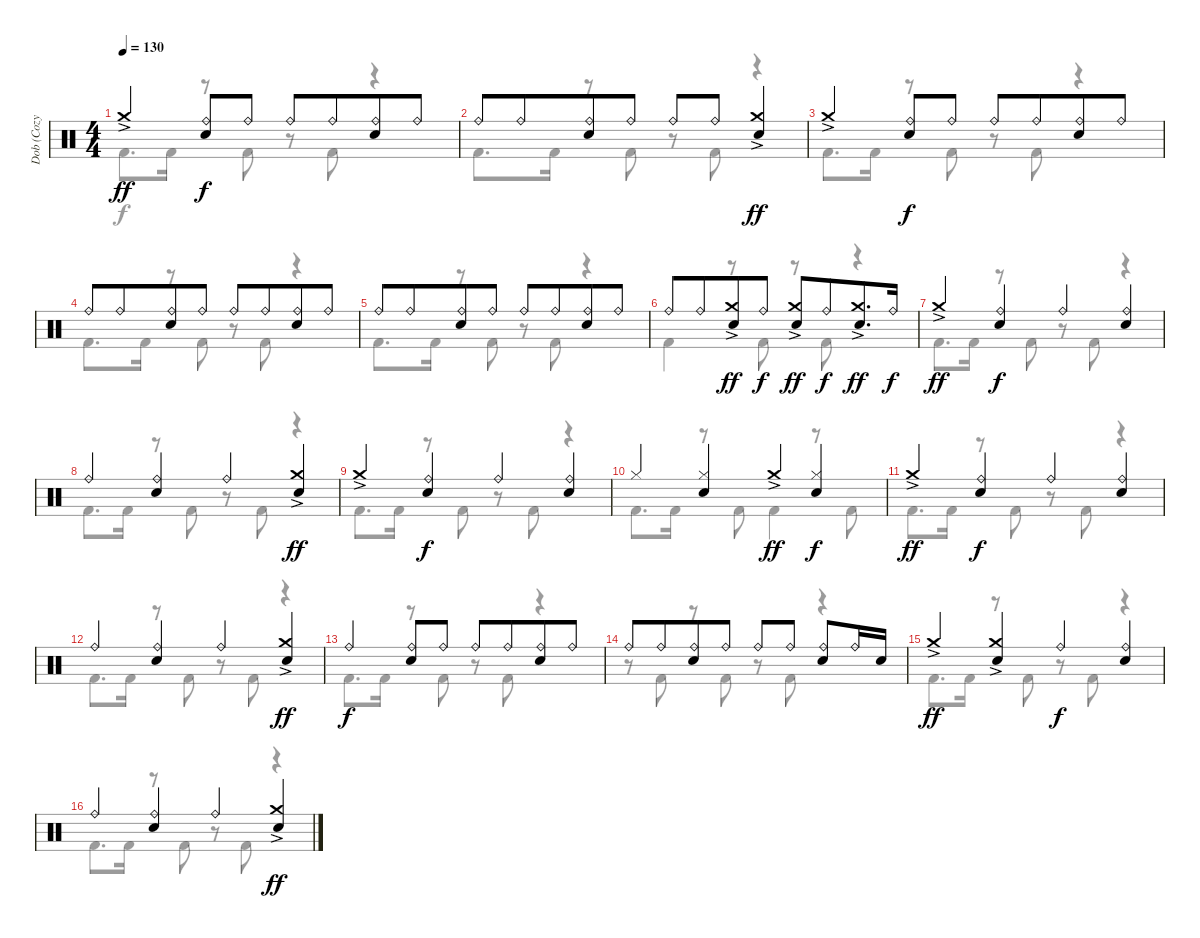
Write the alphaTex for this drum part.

\track ("Dob (Cozy Powell)" "Dob (Cozy ") {instrument percussion}
\staff {score}
\articulation defaults
\voice
\ts (4 4)
\tempo 130
\clef neutral
\ks c "Crash medium (hit)"{ac}.4{dy ff}
("Ride (bell)" "Electric Snare (hit)").8{dy f} "Ride (bell)".8 "Ride (bell)".8 "Ride (bell)".8{beam merge} ("Ride (bell)" "Electric Snare (hit)").8 "Ride (bell)".8 |
"Ride (bell)".8 "Ride (bell)".8{beam merge} ("Ride (bell)" "Electric Snare (hit)").8 "Ride (bell)".8 "Ride (bell)".8 "Ride (bell)".8 ("Crash medium (hit)"{ac} "Electric Snare (hit)").4{dy ff} |
"Crash medium (hit)"{ac}.4 ("Ride (bell)" "Electric Snare (hit)").8{dy f} "Ride (bell)".8 "Ride (bell)".8 "Ride (bell)".8{beam merge} ("Ride (bell)" "Electric Snare (hit)").8 "Ride (bell)".8 |
"Ride (bell)".8 "Ride (bell)".8{beam merge} ("Ride (bell)" "Electric Snare (hit)").8 "Ride (bell)".8 "Ride (bell)".8 "Ride (bell)".8{beam merge} ("Ride (bell)" "Electric Snare (hit)").8 "Ride (bell)".8 |
"Ride (bell)".8 "Ride (bell)".8{beam merge} ("Ride (bell)" "Electric Snare (hit)").8 "Ride (bell)".8 "Ride (bell)".8 "Ride (bell)".8{beam merge} ("Ride (bell)" "Electric Snare (hit)").8 "Ride (bell)".8 |
"Ride (bell)".8 "Ride (bell)".8{beam merge} ("Crash medium (hit)"{ac} "Electric Snare (hit)").8{dy ff} "Ride (bell)".8{dy f beam split} ("Crash medium (hit)"{ac} "Electric Snare (hit)").8{dy ff} "Ride (bell)".8{dy f beam merge} ("Crash medium (hit)"{ac} "Electric Snare (hit)").8{d dy ff} "Ride (bell)".16{dy f} |
"Crash medium (hit)"{ac}.4{dy ff} ("Ride (bell)" "Electric Snare (hit)").4{dy f} "Ride (bell)".4 ("Ride (bell)" "Electric Snare (hit)").4 |
"Ride (bell)".4 ("Ride (bell)" "Electric Snare (hit)").4 "Ride (bell)".4 ("Crash medium (hit)"{ac} "Electric Snare (hit)").4{dy ff} |
"Crash medium (hit)"{ac}.4 ("Ride (bell)" "Electric Snare (hit)").4{dy f} "Ride (bell)".4 ("Ride (bell)" "Electric Snare (hit)").4 |
"Hi-Hat (closed)".4 ("Hi-Hat (closed)" "Electric Snare (hit)").4 "Crash medium (hit)"{ac}.4{dy ff} ("Hi-Hat (closed)" "Electric Snare (hit)").4{dy f} |
"Crash medium (hit)"{ac}.4{dy ff} ("Ride (bell)" "Electric Snare (hit)").4{dy f} "Ride (bell)".4 ("Ride (bell)" "Electric Snare (hit)").4 |
"Ride (bell)".4 ("Ride (bell)" "Electric Snare (hit)").4 "Ride (bell)".4 ("Crash medium (hit)"{ac} "Electric Snare (hit)").4{dy ff} |
"Ride (bell)".4{dy f} ("Ride (bell)" "Electric Snare (hit)").8 "Ride (bell)".8 "Ride (bell)".8 "Ride (bell)".8{beam merge} ("Ride (bell)" "Electric Snare (hit)").8 "Ride (bell)".8 |
"Ride (bell)".8 "Ride (bell)".8{beam merge} ("Ride (bell)" "Electric Snare (hit)").8 "Ride (bell)".8 "Ride (bell)".8 "Ride (bell)".8 ("Ride (bell)" "Electric Snare (hit)").8 "Ride (bell)".16 "Electric Snare (hit)".16 |
"Crash medium (hit)"{ac}.4{dy ff} ("Crash medium (hit)"{ac} "Electric Snare (hit)").4 "Ride (bell)".4{dy f} ("Ride (bell)" "Electric Snare (hit)").4 |
"Ride (bell)".4 ("Ride (bell)" "Electric Snare (hit)").4 "Ride (bell)".4 ("Crash medium (hit)"{ac} "Electric Snare (hit)").4{dy ff}
\voice
\clef neutral
\ottava regular
\simile none
\ks c "Kick (hit) 2".8{d dy f} "Kick (hit) 2".16
r.8 "Kick (hit) 2".8 r.8 "Kick (hit) 2".8 r.4 |
"Kick (hit) 2".8{d} "Kick (hit) 2".16 r.8 "Kick (hit) 2".8 r.8 "Kick (hit) 2".8 r.4 |
"Kick (hit) 2".8{d} "Kick (hit) 2".16 r.8 "Kick (hit) 2".8 r.8 "Kick (hit) 2".8 r.4 |
"Kick (hit) 2".8{d} "Kick (hit) 2".16 r.8 "Kick (hit) 2".8 r.8 "Kick (hit) 2".8 r.4 |
"Kick (hit) 2".8{d} "Kick (hit) 2".16 r.8 "Kick (hit) 2".8 r.8 "Kick (hit) 2".8 r.4 |
"Kick (hit) 2".4 r.8 "Kick (hit) 2".8 r.8 "Kick (hit) 2".8 r.4 |
"Kick (hit) 2".8{d} "Kick (hit) 2".16 r.8 "Kick (hit) 2".8 r.8 "Kick (hit) 2".8 r.4 |
"Kick (hit) 2".8{d} "Kick (hit) 2".16 r.8 "Kick (hit) 2".8 r.8 "Kick (hit) 2".8 r.4 |
"Kick (hit) 2".8{d} "Kick (hit) 2".16 r.8 "Kick (hit) 2".8 r.8 "Kick (hit) 2".8 r.4 |
"Kick (hit) 2".8{d} "Kick (hit) 2".16 r.8 "Kick (hit) 2".8 "Kick (hit) 2".4 r.8 "Kick (hit) 2".8 |
"Kick (hit) 2".8{d} "Kick (hit) 2".16 r.8 "Kick (hit) 2".8 r.8 "Kick (hit) 2".8 r.4 |
"Kick (hit) 2".8{d} "Kick (hit) 2".16 r.8 "Kick (hit) 2".8 r.8 "Kick (hit) 2".8 r.4 |
"Kick (hit) 2".8{d} "Kick (hit) 2".16 r.8 "Kick (hit) 2".8 r.8 "Kick (hit) 2".8 r.4 |
r.8 "Kick (hit) 2".8 r.8 "Kick (hit) 2".8 r.8 "Kick (hit) 2".8 r.4 |
"Kick (hit) 2".8{d} "Kick (hit) 2".16 r.8 "Kick (hit) 2".8 r.8 "Kick (hit) 2".8 r.4 |
"Kick (hit) 2".8{d} "Kick (hit) 2".16 r.8 "Kick (hit) 2".8 r.8 "Kick (hit) 2".8 r.4
